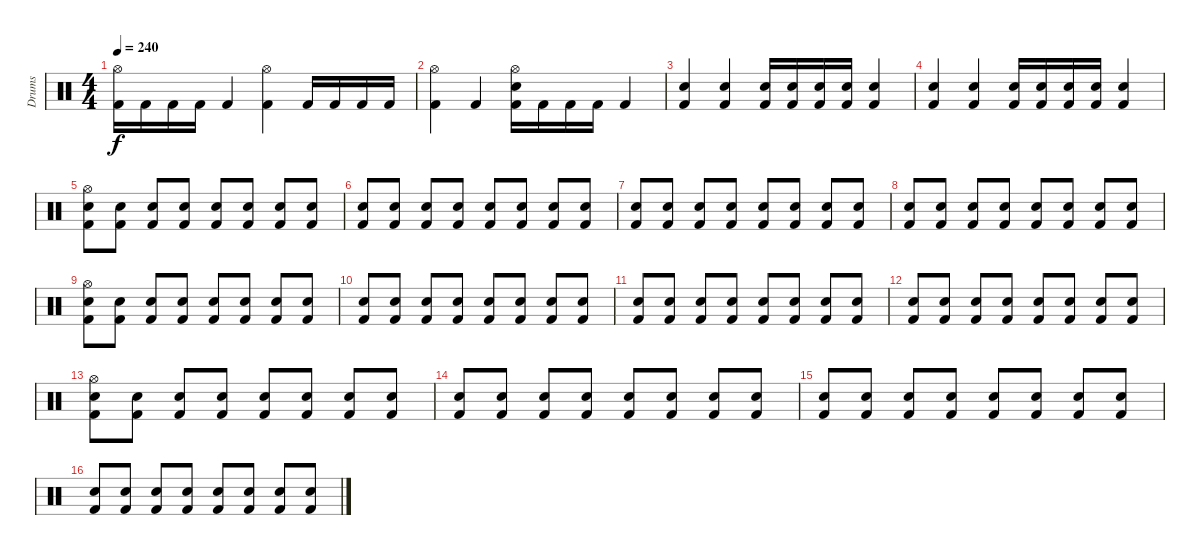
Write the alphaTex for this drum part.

\track ("Drums" "Drums") {instrument percussion}
\staff {score}
\articulation defaults
\ts (4 4)
\tempo 240
\clef neutral
\ks c
("Hi-Hat (open)" "Kick (hit) 2").16{dy f} "Kick (hit) 2".16 "Kick (hit) 2".16 "Kick (hit) 2".16 "Kick (hit) 2".4 ("Hi-Hat (open)" "Kick (hit) 2").4 "Kick (hit) 2".16 "Kick (hit) 2".16 "Kick (hit) 2".16 "Kick (hit) 2".16 |
("Hi-Hat (open)" "Kick (hit) 2").4 "Kick (hit) 2".4 ("Hi-Hat (open)" "Snare (hit) 2" "Kick (hit) 2").16 "Kick (hit) 2".16 "Kick (hit) 2".16 "Kick (hit) 2".16 "Kick (hit) 2".4 |
("Snare (hit) 2" "Kick (hit) 2").4 ("Snare (hit) 2" "Kick (hit) 2").4 ("Snare (hit) 2" "Kick (hit) 2").16 ("Snare (hit) 2" "Kick (hit) 2").16 ("Snare (hit) 2" "Kick (hit) 2").16 ("Snare (hit) 2" "Kick (hit) 2").16 ("Snare (hit) 2" "Kick (hit) 2").4 |
("Snare (hit) 2" "Kick (hit) 2").4 ("Snare (hit) 2" "Kick (hit) 2").4 ("Snare (hit) 2" "Kick (hit) 2").16 ("Snare (hit) 2" "Kick (hit) 2").16 ("Snare (hit) 2" "Kick (hit) 2").16 ("Snare (hit) 2" "Kick (hit) 2").16 ("Snare (hit) 2" "Kick (hit) 2").4 |
("Hi-Hat (open)" "Snare (hit) 2" "Kick (hit) 2").8 ("Snare (hit) 2" "Kick (hit) 2").8 ("Snare (hit) 2" "Kick (hit) 2").8 ("Snare (hit) 2" "Kick (hit) 2").8 ("Snare (hit) 2" "Kick (hit) 2").8 ("Snare (hit) 2" "Kick (hit) 2").8 ("Snare (hit) 2" "Kick (hit) 2").8 ("Snare (hit) 2" "Kick (hit) 2").8 |
("Snare (hit) 2" "Kick (hit) 2").8 ("Snare (hit) 2" "Kick (hit) 2").8 ("Snare (hit) 2" "Kick (hit) 2").8 ("Snare (hit) 2" "Kick (hit) 2").8 ("Snare (hit) 2" "Kick (hit) 2").8 ("Snare (hit) 2" "Kick (hit) 2").8 ("Snare (hit) 2" "Kick (hit) 2").8 ("Snare (hit) 2" "Kick (hit) 2").8 |
("Snare (hit) 2" "Kick (hit) 2").8 ("Snare (hit) 2" "Kick (hit) 2").8 ("Snare (hit) 2" "Kick (hit) 2").8 ("Snare (hit) 2" "Kick (hit) 2").8 ("Snare (hit) 2" "Kick (hit) 2").8 ("Snare (hit) 2" "Kick (hit) 2").8 ("Snare (hit) 2" "Kick (hit) 2").8 ("Snare (hit) 2" "Kick (hit) 2").8 |
("Snare (hit) 2" "Kick (hit) 2").8 ("Snare (hit) 2" "Kick (hit) 2").8 ("Snare (hit) 2" "Kick (hit) 2").8 ("Snare (hit) 2" "Kick (hit) 2").8 ("Snare (hit) 2" "Kick (hit) 2").8 ("Snare (hit) 2" "Kick (hit) 2").8 ("Snare (hit) 2" "Kick (hit) 2").8 ("Snare (hit) 2" "Kick (hit) 2").8 |
("Hi-Hat (open)" "Snare (hit) 2" "Kick (hit) 2").8 ("Snare (hit) 2" "Kick (hit) 2").8 ("Snare (hit) 2" "Kick (hit) 2").8 ("Snare (hit) 2" "Kick (hit) 2").8 ("Snare (hit) 2" "Kick (hit) 2").8 ("Snare (hit) 2" "Kick (hit) 2").8 ("Snare (hit) 2" "Kick (hit) 2").8 ("Snare (hit) 2" "Kick (hit) 2").8 |
("Snare (hit) 2" "Kick (hit) 2").8 ("Snare (hit) 2" "Kick (hit) 2").8 ("Snare (hit) 2" "Kick (hit) 2").8 ("Snare (hit) 2" "Kick (hit) 2").8 ("Snare (hit) 2" "Kick (hit) 2").8 ("Snare (hit) 2" "Kick (hit) 2").8 ("Snare (hit) 2" "Kick (hit) 2").8 ("Snare (hit) 2" "Kick (hit) 2").8 |
("Snare (hit) 2" "Kick (hit) 2").8 ("Snare (hit) 2" "Kick (hit) 2").8 ("Snare (hit) 2" "Kick (hit) 2").8 ("Snare (hit) 2" "Kick (hit) 2").8 ("Snare (hit) 2" "Kick (hit) 2").8 ("Snare (hit) 2" "Kick (hit) 2").8 ("Snare (hit) 2" "Kick (hit) 2").8 ("Snare (hit) 2" "Kick (hit) 2").8 |
("Snare (hit) 2" "Kick (hit) 2").8 ("Snare (hit) 2" "Kick (hit) 2").8 ("Snare (hit) 2" "Kick (hit) 2").8 ("Snare (hit) 2" "Kick (hit) 2").8 ("Snare (hit) 2" "Kick (hit) 2").8 ("Snare (hit) 2" "Kick (hit) 2").8 ("Snare (hit) 2" "Kick (hit) 2").8 ("Snare (hit) 2" "Kick (hit) 2").8 |
("Hi-Hat (open)" "Snare (hit) 2" "Kick (hit) 2").8 ("Snare (hit) 2" "Kick (hit) 2").8 ("Snare (hit) 2" "Kick (hit) 2").8 ("Snare (hit) 2" "Kick (hit) 2").8 ("Snare (hit) 2" "Kick (hit) 2").8 ("Snare (hit) 2" "Kick (hit) 2").8 ("Snare (hit) 2" "Kick (hit) 2").8 ("Snare (hit) 2" "Kick (hit) 2").8 |
("Snare (hit) 2" "Kick (hit) 2").8 ("Snare (hit) 2" "Kick (hit) 2").8 ("Snare (hit) 2" "Kick (hit) 2").8 ("Snare (hit) 2" "Kick (hit) 2").8 ("Snare (hit) 2" "Kick (hit) 2").8 ("Snare (hit) 2" "Kick (hit) 2").8 ("Snare (hit) 2" "Kick (hit) 2").8 ("Snare (hit) 2" "Kick (hit) 2").8 |
("Snare (hit) 2" "Kick (hit) 2").8 ("Snare (hit) 2" "Kick (hit) 2").8 ("Snare (hit) 2" "Kick (hit) 2").8 ("Snare (hit) 2" "Kick (hit) 2").8 ("Snare (hit) 2" "Kick (hit) 2").8 ("Snare (hit) 2" "Kick (hit) 2").8 ("Snare (hit) 2" "Kick (hit) 2").8 ("Snare (hit) 2" "Kick (hit) 2").8 |
("Snare (hit) 2" "Kick (hit) 2").8 ("Snare (hit) 2" "Kick (hit) 2").8 ("Snare (hit) 2" "Kick (hit) 2").8 ("Snare (hit) 2" "Kick (hit) 2").8 ("Snare (hit) 2" "Kick (hit) 2").8 ("Snare (hit) 2" "Kick (hit) 2").8 ("Snare (hit) 2" "Kick (hit) 2").8 ("Snare (hit) 2" "Kick (hit) 2").8
